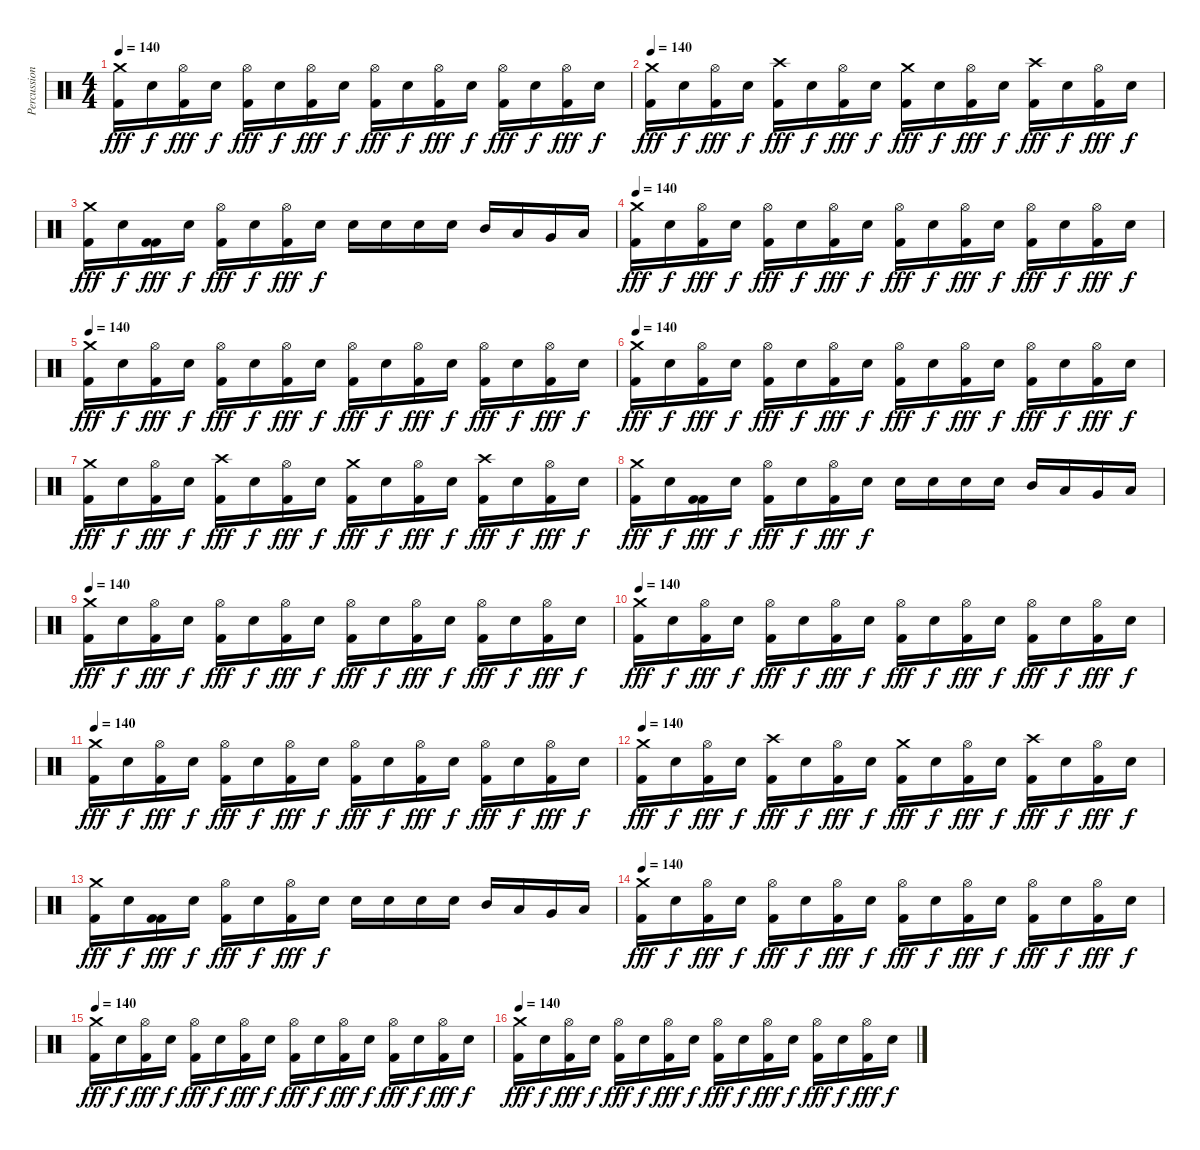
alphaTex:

\track ("Percussion" "Percussion") {instrument percussion}
\staff {score}
\articulation defaults
\ts (4 4)
\tempo 140
\clef neutral
\ks c
("Crash medium (hit)" "Kick (hit) 2").16{dy fff} "Snare (hit) 2".16{dy f} ("Hi-Hat (open)" "Kick (hit) 2").16{dy fff} "Snare (hit) 2".16{dy f} ("Hi-Hat (open)" "Kick (hit) 2").16{dy fff} "Snare (hit) 2".16{dy f} ("Hi-Hat (open)" "Kick (hit) 2").16{dy fff} "Snare (hit) 2".16{dy f} ("Hi-Hat (open)" "Kick (hit) 2").16{dy fff} "Snare (hit) 2".16{dy f} ("Hi-Hat (open)" "Kick (hit) 2").16{dy fff} "Snare (hit) 2".16{dy f} ("Hi-Hat (open)" "Kick (hit) 2").16{dy fff} "Snare (hit) 2".16{dy f} ("Hi-Hat (open)" "Kick (hit) 2").16{dy fff} "Snare (hit) 2".16{dy f} |
\tempo 140
("Crash medium (hit)" "Kick (hit) 2").16{dy fff} "Snare (hit) 2".16{dy f} ("Hi-Hat (open)" "Kick (hit) 2").16{dy fff} "Snare (hit) 2".16{dy f} ("Crash high (hit)" "Kick (hit) 2").16{dy fff} "Snare (hit) 2".16{dy f} ("Hi-Hat (open)" "Kick (hit) 2").16{dy fff} "Snare (hit) 2".16{dy f} ("Crash medium (hit)" "Kick (hit) 2").16{dy fff} "Snare (hit) 2".16{dy f} ("Hi-Hat (open)" "Kick (hit) 2").16{dy fff} "Snare (hit) 2".16{dy f} ("Crash high (hit)" "Kick (hit) 2").16{dy fff} "Snare (hit) 2".16{dy f} ("Hi-Hat (open)" "Kick (hit) 2").16{dy fff} "Snare (hit) 2".16{dy f} |
("Crash medium (hit)" "Kick (hit) 2").16{dy fff} "Snare (hit) 2".16{dy f} ("Kick (hit) 2" "Kick (hit) 2").16{dy fff} "Snare (hit) 2".16{dy f} ("Hi-Hat (open)" "Kick (hit) 2").16{dy fff} "Snare (hit) 2".16{dy f} ("Hi-Hat (open)" "Kick (hit) 2").16{dy fff} "Snare (hit) 2".16{dy f} "Snare (hit) 2".16 "Snare (hit) 2".16 "Snare (hit) 2".16 "Snare (hit) 2".16 "Mid Tom (hit)".16 "Low Tom (hit)".16 "Very Low Tom (hit)".16 "Low Floor Tom (hit)".16 |
\tempo 140
("Crash medium (hit)" "Kick (hit) 2").16{dy fff} "Snare (hit) 2".16{dy f} ("Hi-Hat (open)" "Kick (hit) 2").16{dy fff} "Snare (hit) 2".16{dy f} ("Hi-Hat (open)" "Kick (hit) 2").16{dy fff} "Snare (hit) 2".16{dy f} ("Hi-Hat (open)" "Kick (hit) 2").16{dy fff} "Snare (hit) 2".16{dy f} ("Hi-Hat (open)" "Kick (hit) 2").16{dy fff} "Snare (hit) 2".16{dy f} ("Hi-Hat (open)" "Kick (hit) 2").16{dy fff} "Snare (hit) 2".16{dy f} ("Hi-Hat (open)" "Kick (hit) 2").16{dy fff} "Snare (hit) 2".16{dy f} ("Hi-Hat (open)" "Kick (hit) 2").16{dy fff} "Snare (hit) 2".16{dy f} |
\tempo 140
("Crash medium (hit)" "Kick (hit) 2").16{dy fff} "Snare (hit) 2".16{dy f} ("Hi-Hat (open)" "Kick (hit) 2").16{dy fff} "Snare (hit) 2".16{dy f} ("Hi-Hat (open)" "Kick (hit) 2").16{dy fff} "Snare (hit) 2".16{dy f} ("Hi-Hat (open)" "Kick (hit) 2").16{dy fff} "Snare (hit) 2".16{dy f} ("Hi-Hat (open)" "Kick (hit) 2").16{dy fff} "Snare (hit) 2".16{dy f} ("Hi-Hat (open)" "Kick (hit) 2").16{dy fff} "Snare (hit) 2".16{dy f} ("Hi-Hat (open)" "Kick (hit) 2").16{dy fff} "Snare (hit) 2".16{dy f} ("Hi-Hat (open)" "Kick (hit) 2").16{dy fff} "Snare (hit) 2".16{dy f} |
\tempo 140
("Crash medium (hit)" "Kick (hit) 2").16{dy fff} "Snare (hit) 2".16{dy f} ("Hi-Hat (open)" "Kick (hit) 2").16{dy fff} "Snare (hit) 2".16{dy f} ("Hi-Hat (open)" "Kick (hit) 2").16{dy fff} "Snare (hit) 2".16{dy f} ("Hi-Hat (open)" "Kick (hit) 2").16{dy fff} "Snare (hit) 2".16{dy f} ("Hi-Hat (open)" "Kick (hit) 2").16{dy fff} "Snare (hit) 2".16{dy f} ("Hi-Hat (open)" "Kick (hit) 2").16{dy fff} "Snare (hit) 2".16{dy f} ("Hi-Hat (open)" "Kick (hit) 2").16{dy fff} "Snare (hit) 2".16{dy f} ("Hi-Hat (open)" "Kick (hit) 2").16{dy fff} "Snare (hit) 2".16{dy f} |
("Crash medium (hit)" "Kick (hit) 2").16{dy fff} "Snare (hit) 2".16{dy f} ("Hi-Hat (open)" "Kick (hit) 2").16{dy fff} "Snare (hit) 2".16{dy f} ("Crash high (hit)" "Kick (hit) 2").16{dy fff} "Snare (hit) 2".16{dy f} ("Hi-Hat (open)" "Kick (hit) 2").16{dy fff} "Snare (hit) 2".16{dy f} ("Crash medium (hit)" "Kick (hit) 2").16{dy fff} "Snare (hit) 2".16{dy f} ("Hi-Hat (open)" "Kick (hit) 2").16{dy fff} "Snare (hit) 2".16{dy f} ("Crash high (hit)" "Kick (hit) 2").16{dy fff} "Snare (hit) 2".16{dy f} ("Hi-Hat (open)" "Kick (hit) 2").16{dy fff} "Snare (hit) 2".16{dy f} |
("Crash medium (hit)" "Kick (hit) 2").16{dy fff} "Snare (hit) 2".16{dy f} ("Kick (hit) 2" "Kick (hit) 2").16{dy fff} "Snare (hit) 2".16{dy f} ("Hi-Hat (open)" "Kick (hit) 2").16{dy fff} "Snare (hit) 2".16{dy f} ("Hi-Hat (open)" "Kick (hit) 2").16{dy fff} "Snare (hit) 2".16{dy f} "Snare (hit) 2".16 "Snare (hit) 2".16 "Snare (hit) 2".16 "Snare (hit) 2".16 "Mid Tom (hit)".16 "Low Tom (hit)".16 "Very Low Tom (hit)".16 "Low Floor Tom (hit)".16 |
\tempo 140
("Crash medium (hit)" "Kick (hit) 2").16{dy fff} "Snare (hit) 2".16{dy f} ("Hi-Hat (open)" "Kick (hit) 2").16{dy fff} "Snare (hit) 2".16{dy f} ("Hi-Hat (open)" "Kick (hit) 2").16{dy fff} "Snare (hit) 2".16{dy f} ("Hi-Hat (open)" "Kick (hit) 2").16{dy fff} "Snare (hit) 2".16{dy f} ("Hi-Hat (open)" "Kick (hit) 2").16{dy fff} "Snare (hit) 2".16{dy f} ("Hi-Hat (open)" "Kick (hit) 2").16{dy fff} "Snare (hit) 2".16{dy f} ("Hi-Hat (open)" "Kick (hit) 2").16{dy fff} "Snare (hit) 2".16{dy f} ("Hi-Hat (open)" "Kick (hit) 2").16{dy fff} "Snare (hit) 2".16{dy f} |
\tempo 140
("Crash medium (hit)" "Kick (hit) 2").16{dy fff} "Snare (hit) 2".16{dy f} ("Hi-Hat (open)" "Kick (hit) 2").16{dy fff} "Snare (hit) 2".16{dy f} ("Hi-Hat (open)" "Kick (hit) 2").16{dy fff} "Snare (hit) 2".16{dy f} ("Hi-Hat (open)" "Kick (hit) 2").16{dy fff} "Snare (hit) 2".16{dy f} ("Hi-Hat (open)" "Kick (hit) 2").16{dy fff} "Snare (hit) 2".16{dy f} ("Hi-Hat (open)" "Kick (hit) 2").16{dy fff} "Snare (hit) 2".16{dy f} ("Hi-Hat (open)" "Kick (hit) 2").16{dy fff} "Snare (hit) 2".16{dy f} ("Hi-Hat (open)" "Kick (hit) 2").16{dy fff} "Snare (hit) 2".16{dy f} |
\tempo 140
("Crash medium (hit)" "Kick (hit) 2").16{dy fff} "Snare (hit) 2".16{dy f} ("Hi-Hat (open)" "Kick (hit) 2").16{dy fff} "Snare (hit) 2".16{dy f} ("Hi-Hat (open)" "Kick (hit) 2").16{dy fff} "Snare (hit) 2".16{dy f} ("Hi-Hat (open)" "Kick (hit) 2").16{dy fff} "Snare (hit) 2".16{dy f} ("Hi-Hat (open)" "Kick (hit) 2").16{dy fff} "Snare (hit) 2".16{dy f} ("Hi-Hat (open)" "Kick (hit) 2").16{dy fff} "Snare (hit) 2".16{dy f} ("Hi-Hat (open)" "Kick (hit) 2").16{dy fff} "Snare (hit) 2".16{dy f} ("Hi-Hat (open)" "Kick (hit) 2").16{dy fff} "Snare (hit) 2".16{dy f} |
\tempo 140
("Crash medium (hit)" "Kick (hit) 2").16{dy fff} "Snare (hit) 2".16{dy f} ("Hi-Hat (open)" "Kick (hit) 2").16{dy fff} "Snare (hit) 2".16{dy f} ("Crash high (hit)" "Kick (hit) 2").16{dy fff} "Snare (hit) 2".16{dy f} ("Hi-Hat (open)" "Kick (hit) 2").16{dy fff} "Snare (hit) 2".16{dy f} ("Crash medium (hit)" "Kick (hit) 2").16{dy fff} "Snare (hit) 2".16{dy f} ("Hi-Hat (open)" "Kick (hit) 2").16{dy fff} "Snare (hit) 2".16{dy f} ("Crash high (hit)" "Kick (hit) 2").16{dy fff} "Snare (hit) 2".16{dy f} ("Hi-Hat (open)" "Kick (hit) 2").16{dy fff} "Snare (hit) 2".16{dy f} |
("Crash medium (hit)" "Kick (hit) 2").16{dy fff} "Snare (hit) 2".16{dy f} ("Kick (hit) 2" "Kick (hit) 2").16{dy fff} "Snare (hit) 2".16{dy f} ("Hi-Hat (open)" "Kick (hit) 2").16{dy fff} "Snare (hit) 2".16{dy f} ("Hi-Hat (open)" "Kick (hit) 2").16{dy fff} "Snare (hit) 2".16{dy f} "Snare (hit) 2".16 "Snare (hit) 2".16 "Snare (hit) 2".16 "Snare (hit) 2".16 "Mid Tom (hit)".16 "Low Tom (hit)".16 "Very Low Tom (hit)".16 "Low Floor Tom (hit)".16 |
\tempo 140
("Crash medium (hit)" "Kick (hit) 2").16{dy fff} "Snare (hit) 2".16{dy f} ("Hi-Hat (open)" "Kick (hit) 2").16{dy fff} "Snare (hit) 2".16{dy f} ("Hi-Hat (open)" "Kick (hit) 2").16{dy fff} "Snare (hit) 2".16{dy f} ("Hi-Hat (open)" "Kick (hit) 2").16{dy fff} "Snare (hit) 2".16{dy f} ("Hi-Hat (open)" "Kick (hit) 2").16{dy fff} "Snare (hit) 2".16{dy f} ("Hi-Hat (open)" "Kick (hit) 2").16{dy fff} "Snare (hit) 2".16{dy f} ("Hi-Hat (open)" "Kick (hit) 2").16{dy fff} "Snare (hit) 2".16{dy f} ("Hi-Hat (open)" "Kick (hit) 2").16{dy fff} "Snare (hit) 2".16{dy f} |
\tempo 140
("Crash medium (hit)" "Kick (hit) 2").16{dy fff} "Snare (hit) 2".16{dy f} ("Hi-Hat (open)" "Kick (hit) 2").16{dy fff} "Snare (hit) 2".16{dy f} ("Hi-Hat (open)" "Kick (hit) 2").16{dy fff} "Snare (hit) 2".16{dy f} ("Hi-Hat (open)" "Kick (hit) 2").16{dy fff} "Snare (hit) 2".16{dy f} ("Hi-Hat (open)" "Kick (hit) 2").16{dy fff} "Snare (hit) 2".16{dy f} ("Hi-Hat (open)" "Kick (hit) 2").16{dy fff} "Snare (hit) 2".16{dy f} ("Hi-Hat (open)" "Kick (hit) 2").16{dy fff} "Snare (hit) 2".16{dy f} ("Hi-Hat (open)" "Kick (hit) 2").16{dy fff} "Snare (hit) 2".16{dy f} |
\tempo 140
("Crash medium (hit)" "Kick (hit) 2").16{dy fff} "Snare (hit) 2".16{dy f} ("Hi-Hat (open)" "Kick (hit) 2").16{dy fff} "Snare (hit) 2".16{dy f} ("Hi-Hat (open)" "Kick (hit) 2").16{dy fff} "Snare (hit) 2".16{dy f} ("Hi-Hat (open)" "Kick (hit) 2").16{dy fff} "Snare (hit) 2".16{dy f} ("Hi-Hat (open)" "Kick (hit) 2").16{dy fff} "Snare (hit) 2".16{dy f} ("Hi-Hat (open)" "Kick (hit) 2").16{dy fff} "Snare (hit) 2".16{dy f} ("Hi-Hat (open)" "Kick (hit) 2").16{dy fff} "Snare (hit) 2".16{dy f} ("Hi-Hat (open)" "Kick (hit) 2").16{dy fff} "Snare (hit) 2".16{dy f}
